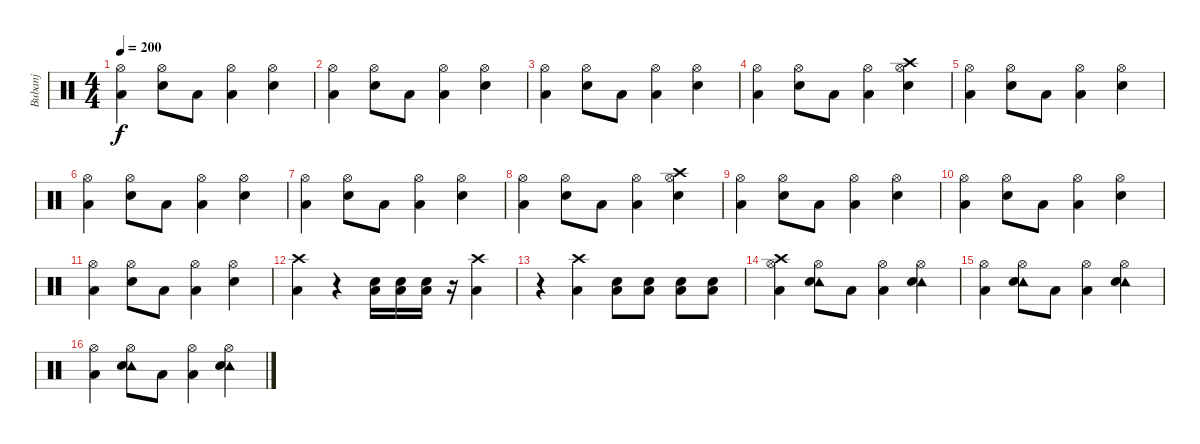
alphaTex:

\track ("Bubanj" "Bubanj") {instrument percussion}
\staff {score}
\articulation defaults
\ts (4 4)
\tempo 200
\clef neutral
\ks c
("Hi-Hat (open)" "Low Tom (hit)").4{dy f} ("Hi-Hat (open)" "Snare (hit) 2").8 "Low Tom (hit)".8 ("Hi-Hat (open)" "Low Tom (hit)").4 ("Hi-Hat (open)" "Snare (hit) 2").4 |
("Hi-Hat (open)" "Low Tom (hit)").4 ("Hi-Hat (open)" "Snare (hit) 2").8 "Low Tom (hit)".8 ("Hi-Hat (open)" "Low Tom (hit)").4 ("Hi-Hat (open)" "Snare (hit) 2").4 |
("Hi-Hat (open)" "Low Tom (hit)").4 ("Hi-Hat (open)" "Snare (hit) 2").8 "Low Tom (hit)".8 ("Hi-Hat (open)" "Low Tom (hit)").4 ("Hi-Hat (open)" "Snare (hit) 2").4 |
("Hi-Hat (open)" "Low Tom (hit)").4 ("Hi-Hat (open)" "Snare (hit) 2").8 "Low Tom (hit)".8 ("Hi-Hat (open)" "Low Tom (hit)").4 ("Hi-Hat (open)" "Crash high (hit)" "Snare (hit) 2").4 |
("Hi-Hat (open)" "Low Tom (hit)").4 ("Hi-Hat (open)" "Snare (hit) 2").8 "Low Tom (hit)".8 ("Hi-Hat (open)" "Low Tom (hit)").4 ("Hi-Hat (open)" "Snare (hit) 2").4 |
("Hi-Hat (open)" "Low Tom (hit)").4 ("Hi-Hat (open)" "Snare (hit) 2").8 "Low Tom (hit)".8 ("Hi-Hat (open)" "Low Tom (hit)").4 ("Hi-Hat (open)" "Snare (hit) 2").4 |
("Hi-Hat (open)" "Low Tom (hit)").4 ("Hi-Hat (open)" "Snare (hit) 2").8 "Low Tom (hit)".8 ("Hi-Hat (open)" "Low Tom (hit)").4 ("Hi-Hat (open)" "Snare (hit) 2").4 |
("Hi-Hat (open)" "Low Tom (hit)").4 ("Hi-Hat (open)" "Snare (hit) 2").8 "Low Tom (hit)".8 ("Hi-Hat (open)" "Low Tom (hit)").4 ("Hi-Hat (open)" "Crash high (hit)" "Snare (hit) 2").4 |
("Hi-Hat (open)" "Low Tom (hit)").4 ("Hi-Hat (open)" "Snare (hit) 2").8 "Low Tom (hit)".8 ("Hi-Hat (open)" "Low Tom (hit)").4 ("Hi-Hat (open)" "Snare (hit) 2").4 |
("Hi-Hat (open)" "Low Tom (hit)").4 ("Hi-Hat (open)" "Snare (hit) 2").8 "Low Tom (hit)".8 ("Hi-Hat (open)" "Low Tom (hit)").4 ("Hi-Hat (open)" "Snare (hit) 2").4 |
("Hi-Hat (open)" "Low Tom (hit)").4 ("Hi-Hat (open)" "Snare (hit) 2").8 "Low Tom (hit)".8 ("Hi-Hat (open)" "Low Tom (hit)").4 ("Hi-Hat (open)" "Snare (hit) 2").4 |
("Crash high (hit)" "Low Tom (hit)").4 r.4 ("Electric Snare (hit)" "Low Tom (hit)").16 ("Electric Snare (hit)" "Low Tom (hit)").16 ("Electric Snare (hit)" "Low Tom (hit)").16 r.16 ("Crash high (hit)" "Low Tom (hit)").4 |
r.4 ("Crash high (hit)" "Low Tom (hit)").4 ("Snare (hit) 2" "Low Tom (hit)").8 ("Snare (hit) 2" "Low Tom (hit)").8 ("Snare (hit) 2" "Low Tom (hit)").8 ("Snare (hit) 2" "Low Tom (hit)").8 |
("Hi-Hat (open)" "Crash high (hit)" "Low Tom (hit)").4 ("Hi-Hat (open)" "Tambourine (hit)" "Snare (hit) 2").8 "Low Tom (hit)".8 ("Hi-Hat (open)" "Low Tom (hit)").4 ("Hi-Hat (open)" "Tambourine (hit)" "Snare (hit) 2").4 |
("Hi-Hat (open)" "Low Tom (hit)").4 ("Hi-Hat (open)" "Tambourine (hit)" "Snare (hit) 2").8 "Low Tom (hit)".8 ("Hi-Hat (open)" "Low Tom (hit)").4 ("Hi-Hat (open)" "Tambourine (hit)" "Snare (hit) 2").4 |
("Hi-Hat (open)" "Low Tom (hit)").4 ("Hi-Hat (open)" "Tambourine (hit)" "Snare (hit) 2").8 "Low Tom (hit)".8 ("Hi-Hat (open)" "Low Tom (hit)").4 ("Hi-Hat (open)" "Tambourine (hit)" "Snare (hit) 2").4
